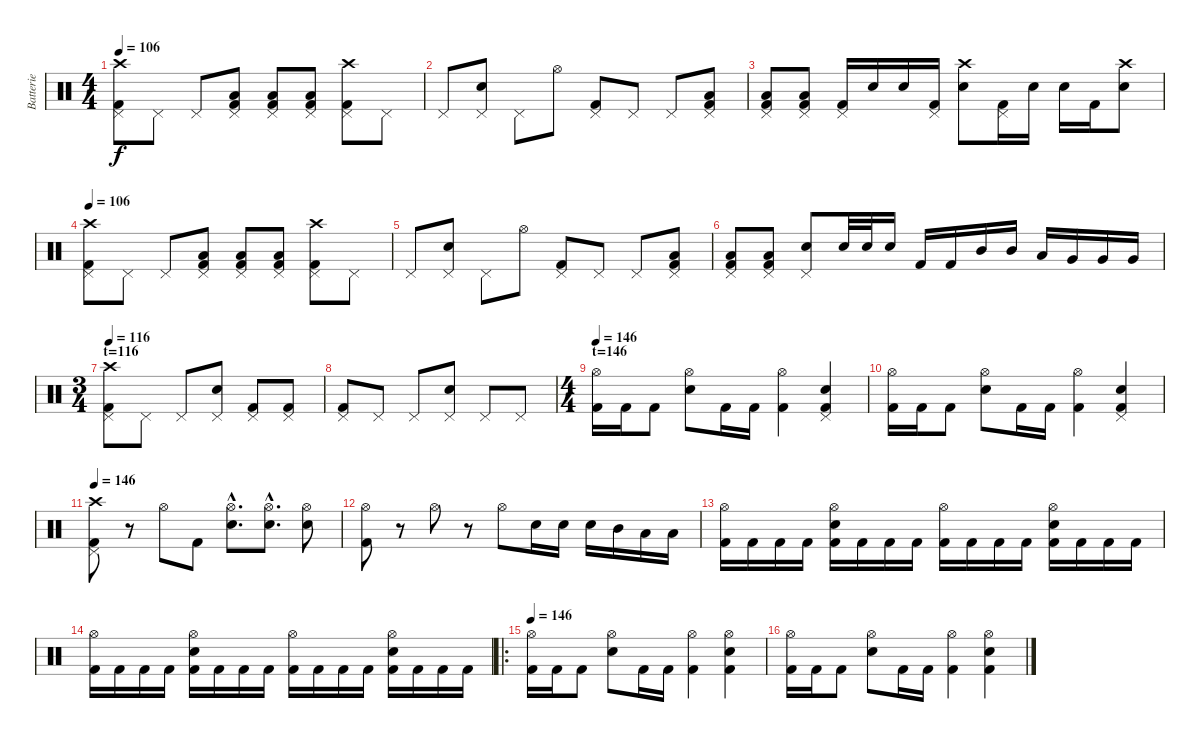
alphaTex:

\track ("Batterie" "Batterie") {instrument percussion}
\staff {score}
\articulation defaults
\ts (4 4)
\tempo 106
\clef neutral
\ks c
("Crash high (hit)" "Pedal Hi-Hat (hit)" "Kick (hit) 2").8{dy f} "Pedal Hi-Hat (hit)".8 "Pedal Hi-Hat (hit)".8 ("Low Tom (hit)" "Pedal Hi-Hat (hit)" "Kick (hit) 2").8 ("Low Tom (hit)" "Pedal Hi-Hat (hit)" "Kick (hit) 2").8 ("Low Tom (hit)" "Pedal Hi-Hat (hit)" "Kick (hit) 2").8 ("Crash high (hit)" "Pedal Hi-Hat (hit)" "Kick (hit) 2").8 "Pedal Hi-Hat (hit)".8 |
"Pedal Hi-Hat (hit)".8 ("Pedal Hi-Hat (hit)" "Electric Snare (hit)").8 "Pedal Hi-Hat (hit)".8 "Hi-Hat (open)".8 ("Pedal Hi-Hat (hit)" "Kick (hit) 2").8 "Pedal Hi-Hat (hit)".8 "Pedal Hi-Hat (hit)".8 ("Low Tom (hit)" "Pedal Hi-Hat (hit)" "Kick (hit) 2").8 |
("Low Tom (hit)" "Pedal Hi-Hat (hit)" "Kick (hit) 2").8 ("Low Tom (hit)" "Pedal Hi-Hat (hit)" "Kick (hit) 2").8 ("Pedal Hi-Hat (hit)" "Kick (hit) 2").16 "Electric Snare (hit)".16 "Electric Snare (hit)".16 ("Pedal Hi-Hat (hit)" "Kick (hit) 2").16 ("Crash high (hit)" "Electric Snare (hit)").8 ("Pedal Hi-Hat (hit)" "Kick (hit) 2").16 "Electric Snare (hit)".16 "Electric Snare (hit)".16 "Kick (hit) 2".16 ("Crash high (hit)" "Electric Snare (hit)").8 |
\tempo 106
("Crash high (hit)" "Pedal Hi-Hat (hit)" "Kick (hit) 2").8 "Pedal Hi-Hat (hit)".8 "Pedal Hi-Hat (hit)".8 ("Low Tom (hit)" "Pedal Hi-Hat (hit)" "Kick (hit) 2").8 ("Low Tom (hit)" "Pedal Hi-Hat (hit)" "Kick (hit) 2").8 ("Low Tom (hit)" "Pedal Hi-Hat (hit)" "Kick (hit) 2").8 ("Crash high (hit)" "Pedal Hi-Hat (hit)" "Kick (hit) 2").8 "Pedal Hi-Hat (hit)".8 |
"Pedal Hi-Hat (hit)".8 ("Pedal Hi-Hat (hit)" "Electric Snare (hit)").8 "Pedal Hi-Hat (hit)".8 "Hi-Hat (open)".8 ("Pedal Hi-Hat (hit)" "Kick (hit) 2").8 "Pedal Hi-Hat (hit)".8 "Pedal Hi-Hat (hit)".8 ("Low Tom (hit)" "Pedal Hi-Hat (hit)" "Kick (hit) 2").8 |
("Low Tom (hit)" "Pedal Hi-Hat (hit)" "Kick (hit) 2").8 ("Low Tom (hit)" "Pedal Hi-Hat (hit)" "Kick (hit) 2").8 ("Pedal Hi-Hat (hit)" "Electric Snare (hit)").8 "Electric Snare (hit)".32 "Electric Snare (hit)".32 "Electric Snare (hit)".16 "Kick (hit) 2".16 "Kick (hit) 2".16 "Mid Tom (hit)".16 "Mid Tom (hit)".16 "Low Tom (hit)".16 "Very Low Tom (hit)".16 "Very Low Tom (hit)".16 "Very Low Tom (hit)".16 |
\ts (3 4)
\section ("" "t=116")
\tempo 116
("Crash high (hit)" "Pedal Hi-Hat (hit)" "Kick (hit) 2").8 "Pedal Hi-Hat (hit)".8 "Pedal Hi-Hat (hit)".8 ("Pedal Hi-Hat (hit)" "Electric Snare (hit)").8 ("Pedal Hi-Hat (hit)" "Kick (hit) 2").8 ("Pedal Hi-Hat (hit)" "Kick (hit) 2").8 |
("Pedal Hi-Hat (hit)" "Kick (hit) 2").8 "Pedal Hi-Hat (hit)".8 "Pedal Hi-Hat (hit)".8 ("Pedal Hi-Hat (hit)" "Electric Snare (hit)").8 "Pedal Hi-Hat (hit)".8 "Pedal Hi-Hat (hit)".8 |
\ts (4 4)
\section ("" "t=146")
\tempo 146
("Hi-Hat (open)" "Kick (hit) 2").16 "Kick (hit) 2".16 "Kick (hit) 2".8 ("Hi-Hat (open)" "Electric Snare (hit)").8 "Kick (hit) 2".16 "Kick (hit) 2".16 ("Hi-Hat (open)" "Kick (hit) 2").4 ("Kick (hit) 2" "Pedal Hi-Hat (hit)" "Electric Snare (hit)").4 |
("Hi-Hat (open)" "Kick (hit) 2").16 "Kick (hit) 2".16 "Kick (hit) 2".8 ("Hi-Hat (open)" "Electric Snare (hit)").8 "Kick (hit) 2".16 "Kick (hit) 2".16 ("Hi-Hat (open)" "Kick (hit) 2").4 ("Kick (hit) 2" "Pedal Hi-Hat (hit)" "Electric Snare (hit)").4 |
\tempo 146
("Crash high (hit)" "Pedal Hi-Hat (hit)" "Kick (hit) 2").8 r.8 "Hi-Hat (open)".8 "Kick (hit) 2".8 ("Hi-Hat (open)"{hac} "Electric Snare (hit)"{hac}).8{d} ("Hi-Hat (open)"{hac} "Electric Snare (hit)"{hac}).8{d} ("Hi-Hat (open)" "Electric Snare (hit)").8 |
("Hi-Hat (open)" "Kick (hit) 2").8 r.8 "Hi-Hat (open)".8 r.8 "Hi-Hat (open)".8 "Electric Snare (hit)".16 "Electric Snare (hit)".16 "Electric Snare (hit)".16 "Mid Tom (hit)".16 "Low Tom (hit)".16 "Low Tom (hit)".16 |
("Hi-Hat (open)" "Kick (hit) 2").16 "Kick (hit) 2".16 "Kick (hit) 2".16 "Kick (hit) 2".16 ("Hi-Hat (open)" "Electric Snare (hit)" "Kick (hit) 2").16 "Kick (hit) 2".16 "Kick (hit) 2".16 "Kick (hit) 2".16 ("Hi-Hat (open)" "Kick (hit) 2").16 "Kick (hit) 2".16 "Kick (hit) 2".16 "Kick (hit) 2".16 ("Hi-Hat (open)" "Electric Snare (hit)" "Kick (hit) 2").16 "Kick (hit) 2".16 "Kick (hit) 2".16 "Kick (hit) 2".16 |
("Hi-Hat (open)" "Kick (hit) 2").16 "Kick (hit) 2".16 "Kick (hit) 2".16 "Kick (hit) 2".16 ("Hi-Hat (open)" "Electric Snare (hit)" "Kick (hit) 2").16 "Kick (hit) 2".16 "Kick (hit) 2".16 "Kick (hit) 2".16 ("Hi-Hat (open)" "Kick (hit) 2").16 "Kick (hit) 2".16 "Kick (hit) 2".16 "Kick (hit) 2".16 ("Hi-Hat (open)" "Electric Snare (hit)" "Kick (hit) 2").16 "Kick (hit) 2".16 "Kick (hit) 2".16 "Kick (hit) 2".16 |
\ro
\tempo 146
("Hi-Hat (open)" "Kick (hit) 2").16 "Kick (hit) 2".16 "Kick (hit) 2".8 ("Hi-Hat (open)" "Electric Snare (hit)").8 "Kick (hit) 2".16 "Kick (hit) 2".16 ("Hi-Hat (open)" "Kick (hit) 2").4 ("Kick (hit) 2" "Hi-Hat (open)" "Electric Snare (hit)").4 |
("Hi-Hat (open)" "Kick (hit) 2").16 "Kick (hit) 2".16 "Kick (hit) 2".8 ("Hi-Hat (open)" "Electric Snare (hit)").8 "Kick (hit) 2".16 "Kick (hit) 2".16 ("Hi-Hat (open)" "Kick (hit) 2").4 ("Kick (hit) 2" "Hi-Hat (open)" "Electric Snare (hit)").4
